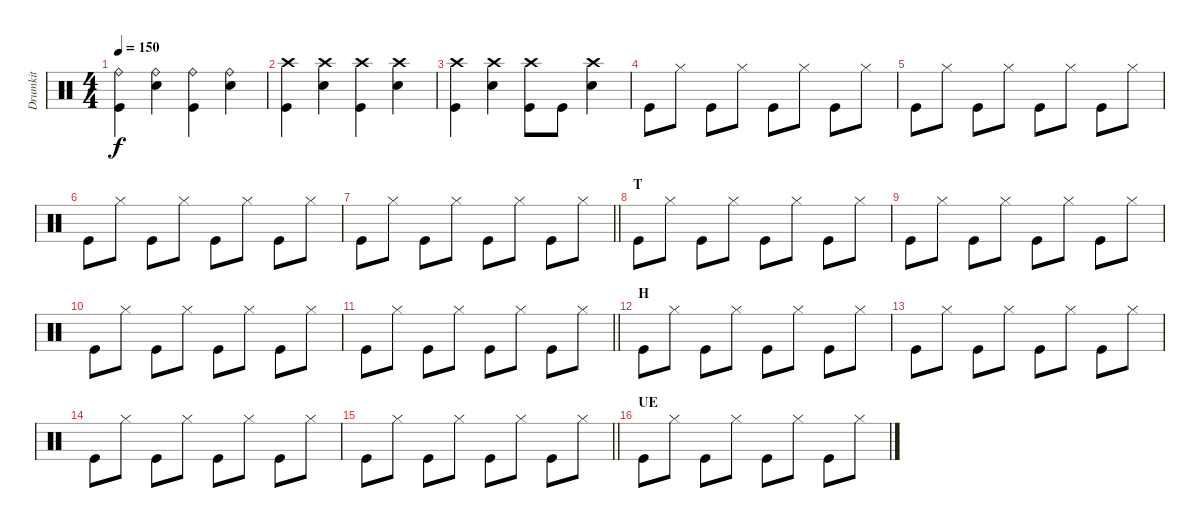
\track ("Drumkit" "Drumkit") {instrument percussion}
\staff {score}
\articulation defaults
\ts (4 4)
\tempo 150
\clef neutral
\ks c
("Ride (bell)" "Kick (hit)").4{dy f} ("Ride (bell)" "Snare (hit) 2").4 ("Ride (bell)" "Kick (hit)").4 ("Ride (bell)" "Snare (hit) 2").4 |
("Crash high (hit)" "Kick (hit)").4 ("Crash high (hit)" "Snare (hit) 2").4 ("Crash high (hit)" "Kick (hit)").4 ("Crash high (hit)" "Snare (hit) 2").4 |
("Crash high (hit)" "Kick (hit)").4 ("Crash high (hit)" "Snare (hit) 2").4 ("Crash high (hit)" "Kick (hit)").8 "Kick (hit)".8 ("Crash high (hit)" "Snare (hit) 2").4 |
"Kick (hit)".8 "Hi-Hat (closed)".8 "Kick (hit)".8 "Hi-Hat (closed)".8 "Kick (hit)".8 "Hi-Hat (closed)".8 "Kick (hit)".8 "Hi-Hat (closed)".8 |
"Kick (hit)".8 "Hi-Hat (closed)".8 "Kick (hit)".8 "Hi-Hat (closed)".8 "Kick (hit)".8 "Hi-Hat (closed)".8 "Kick (hit)".8 "Hi-Hat (closed)".8 |
"Kick (hit)".8 "Hi-Hat (closed)".8 "Kick (hit)".8 "Hi-Hat (closed)".8 "Kick (hit)".8 "Hi-Hat (closed)".8 "Kick (hit)".8 "Hi-Hat (closed)".8 |
\barLineRight lightlight "Kick (hit)".8 "Hi-Hat (closed)".8 "Kick (hit)".8 "Hi-Hat (closed)".8 "Kick (hit)".8 "Hi-Hat (closed)".8 "Kick (hit)".8 "Hi-Hat (closed)".8
|
\section ("" "T")
"Kick (hit)".8 "Hi-Hat (closed)".8 "Kick (hit)".8 "Hi-Hat (closed)".8 "Kick (hit)".8 "Hi-Hat (closed)".8 "Kick (hit)".8 "Hi-Hat (closed)".8 |
"Kick (hit)".8 "Hi-Hat (closed)".8 "Kick (hit)".8 "Hi-Hat (closed)".8 "Kick (hit)".8 "Hi-Hat (closed)".8 "Kick (hit)".8 "Hi-Hat (closed)".8 |
"Kick (hit)".8 "Hi-Hat (closed)".8 "Kick (hit)".8 "Hi-Hat (closed)".8 "Kick (hit)".8 "Hi-Hat (closed)".8 "Kick (hit)".8 "Hi-Hat (closed)".8 |
\barLineRight lightlight "Kick (hit)".8 "Hi-Hat (closed)".8 "Kick (hit)".8 "Hi-Hat (closed)".8 "Kick (hit)".8 "Hi-Hat (closed)".8 "Kick (hit)".8 "Hi-Hat (closed)".8
|
\section ("" "H")
"Kick (hit)".8 "Hi-Hat (closed)".8 "Kick (hit)".8 "Hi-Hat (closed)".8 "Kick (hit)".8 "Hi-Hat (closed)".8 "Kick (hit)".8 "Hi-Hat (closed)".8 |
"Kick (hit)".8 "Hi-Hat (closed)".8 "Kick (hit)".8 "Hi-Hat (closed)".8 "Kick (hit)".8 "Hi-Hat (closed)".8 "Kick (hit)".8 "Hi-Hat (closed)".8 |
"Kick (hit)".8 "Hi-Hat (closed)".8 "Kick (hit)".8 "Hi-Hat (closed)".8 "Kick (hit)".8 "Hi-Hat (closed)".8 "Kick (hit)".8 "Hi-Hat (closed)".8 |
\barLineRight lightlight "Kick (hit)".8 "Hi-Hat (closed)".8 "Kick (hit)".8 "Hi-Hat (closed)".8 "Kick (hit)".8 "Hi-Hat (closed)".8 "Kick (hit)".8 "Hi-Hat (closed)".8
|
\section ("" "UE")
"Kick (hit)".8 "Hi-Hat (closed)".8 "Kick (hit)".8 "Hi-Hat (closed)".8 "Kick (hit)".8 "Hi-Hat (closed)".8 "Kick (hit)".8 "Hi-Hat (closed)".8
